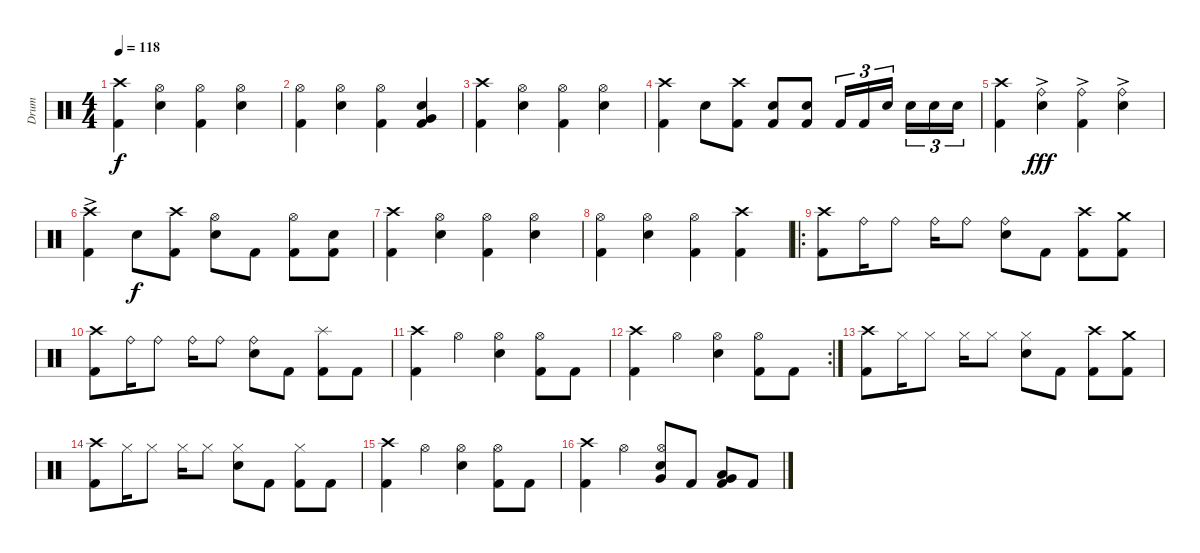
\track ("Drum" "Drum") {instrument percussion}
\staff {score}
\articulation defaults
\ts (4 4)
\tempo 118
\clef neutral
\ks c
("Crash high (hit)" "Kick (hit) 2").4{dy f} ("Electric Snare (hit)" "Hi-Hat (open)").4 ("Kick (hit) 2" "Hi-Hat (open)").4 ("Electric Snare (hit)" "Hi-Hat (open)").4 |
("Kick (hit) 2" "Hi-Hat (open)").4 ("Electric Snare (hit)" "Hi-Hat (open)").4 ("Kick (hit) 2" "Hi-Hat (open)").4 ("Electric Snare (hit)" "Very Low Tom (hit)" "Kick (hit) 2").4 |
("Crash high (hit)" "Kick (hit) 2").4 ("Electric Snare (hit)" "Hi-Hat (open)").4 ("Kick (hit) 2" "Hi-Hat (open)").4 ("Electric Snare (hit)" "Hi-Hat (open)").4 |
("Kick (hit) 2" "Crash high (hit)").4 "Electric Snare (hit)".8 ("Kick (hit) 2" "Crash high (hit)").8 ("Kick (hit) 2" "Electric Snare (hit)").8 ("Kick (hit) 2" "Electric Snare (hit)").8 "Kick (hit) 2".16{tu (3 2)} "Kick (hit) 2".16{tu (3 2)} "Electric Snare (hit)".16{tu (3 2)} "Electric Snare (hit)".16{tu (3 2)} "Electric Snare (hit)".16{tu (3 2)} "Electric Snare (hit)".16{tu (3 2)} |
("Crash high (hit)" "Kick (hit) 2").4 ("Electric Snare (hit)" "Ride (bell)"{ac}).4{dy fff} ("Kick (hit) 2" "Ride (bell)"{ac}).4 ("Electric Snare (hit)" "Ride (bell)"{ac}).4 |
("Kick (hit) 2" "Crash high (hit)"{ac}).4 "Electric Snare (hit)".8{dy f} ("Kick (hit) 2" "Crash high (hit)").8 ("Hi-Hat (open)" "Electric Snare (hit)").8 "Kick (hit) 2".8 ("Hi-Hat (open)" "Kick (hit) 2").8 ("Electric Snare (hit)" "Kick (hit) 2").8 |
("Crash high (hit)" "Kick (hit) 2").4 ("Electric Snare (hit)" "Hi-Hat (open)").4 ("Kick (hit) 2" "Hi-Hat (open)").4 ("Electric Snare (hit)" "Hi-Hat (open)").4 |
("Hi-Hat (open)" "Kick (hit) 2").4 ("Electric Snare (hit)" "Hi-Hat (open)").4 ("Kick (hit) 2" "Hi-Hat (open)").4 ("Crash high (hit)" "Kick (hit) 2").4 |
\ro
("Crash high (hit)" "Kick (hit) 2").8 "Ride (bell)".16 "Ride (bell)".8 "Ride (bell)".16 "Ride (bell)".8 ("Electric Snare (hit)" "Ride (bell)").8 "Kick (hit) 2".8 ("Crash high (hit)" "Kick (hit) 2").8 ("Crash medium (hit)" "Kick (hit) 2").8 |
("Crash high (hit)" "Kick (hit) 2").8 "Ride (bell)".16 "Ride (bell)".8 "Ride (bell)".16 "Ride (bell)".8 ("Electric Snare (hit)" "Ride (bell)").8 "Kick (hit) 2".8 ("Splash (hit)" "Kick (hit) 2").8 "Kick (hit) 2".8 |
("Crash high (hit)" "Kick (hit) 2").4 "Hi-Hat (open)".4 ("Electric Snare (hit)" "Hi-Hat (open)").4 ("Hi-Hat (open)" "Kick (hit) 2").8 "Kick (hit) 2".8 |
\rc 2
("Crash high (hit)" "Kick (hit) 2").4 "Hi-Hat (open)".4 ("Electric Snare (hit)" "Hi-Hat (open)").4 ("Hi-Hat (open)" "Kick (hit) 2").8 "Kick (hit) 2".8 |
("Crash high (hit)" "Kick (hit) 2").8 "Hi-Hat (closed)".16 "Hi-Hat (closed)".8 "Hi-Hat (closed)".16 "Hi-Hat (closed)".8 ("Electric Snare (hit)" "Hi-Hat (closed)").8 "Kick (hit) 2".8 ("Crash high (hit)" "Kick (hit) 2").8 ("Crash medium (hit)" "Kick (hit) 2").8 |
("Crash high (hit)" "Kick (hit) 2").8 "Hi-Hat (closed)".16 "Hi-Hat (closed)".8 "Hi-Hat (closed)".16 "Hi-Hat (closed)".8 ("Electric Snare (hit)" "Hi-Hat (closed)").8 "Kick (hit) 2".8 ("Hi-Hat (closed)" "Kick (hit) 2").8 "Kick (hit) 2".8 |
("Crash high (hit)" "Kick (hit) 2").4 "Hi-Hat (open)".4 ("Electric Snare (hit)" "Hi-Hat (open)").4 ("Hi-Hat (open)" "Kick (hit) 2").8 "Kick (hit) 2".8 |
("Crash high (hit)" "Kick (hit) 2").4 "Hi-Hat (open)".4 ("Very Low Tom (hit)" "Electric Snare (hit)" "Hi-Hat (open)").8 "Kick (hit) 2".8 ("Very Low Tom (hit)" "Low Tom (hit)" "Kick (hit) 2").8 "Kick (hit) 2".8
